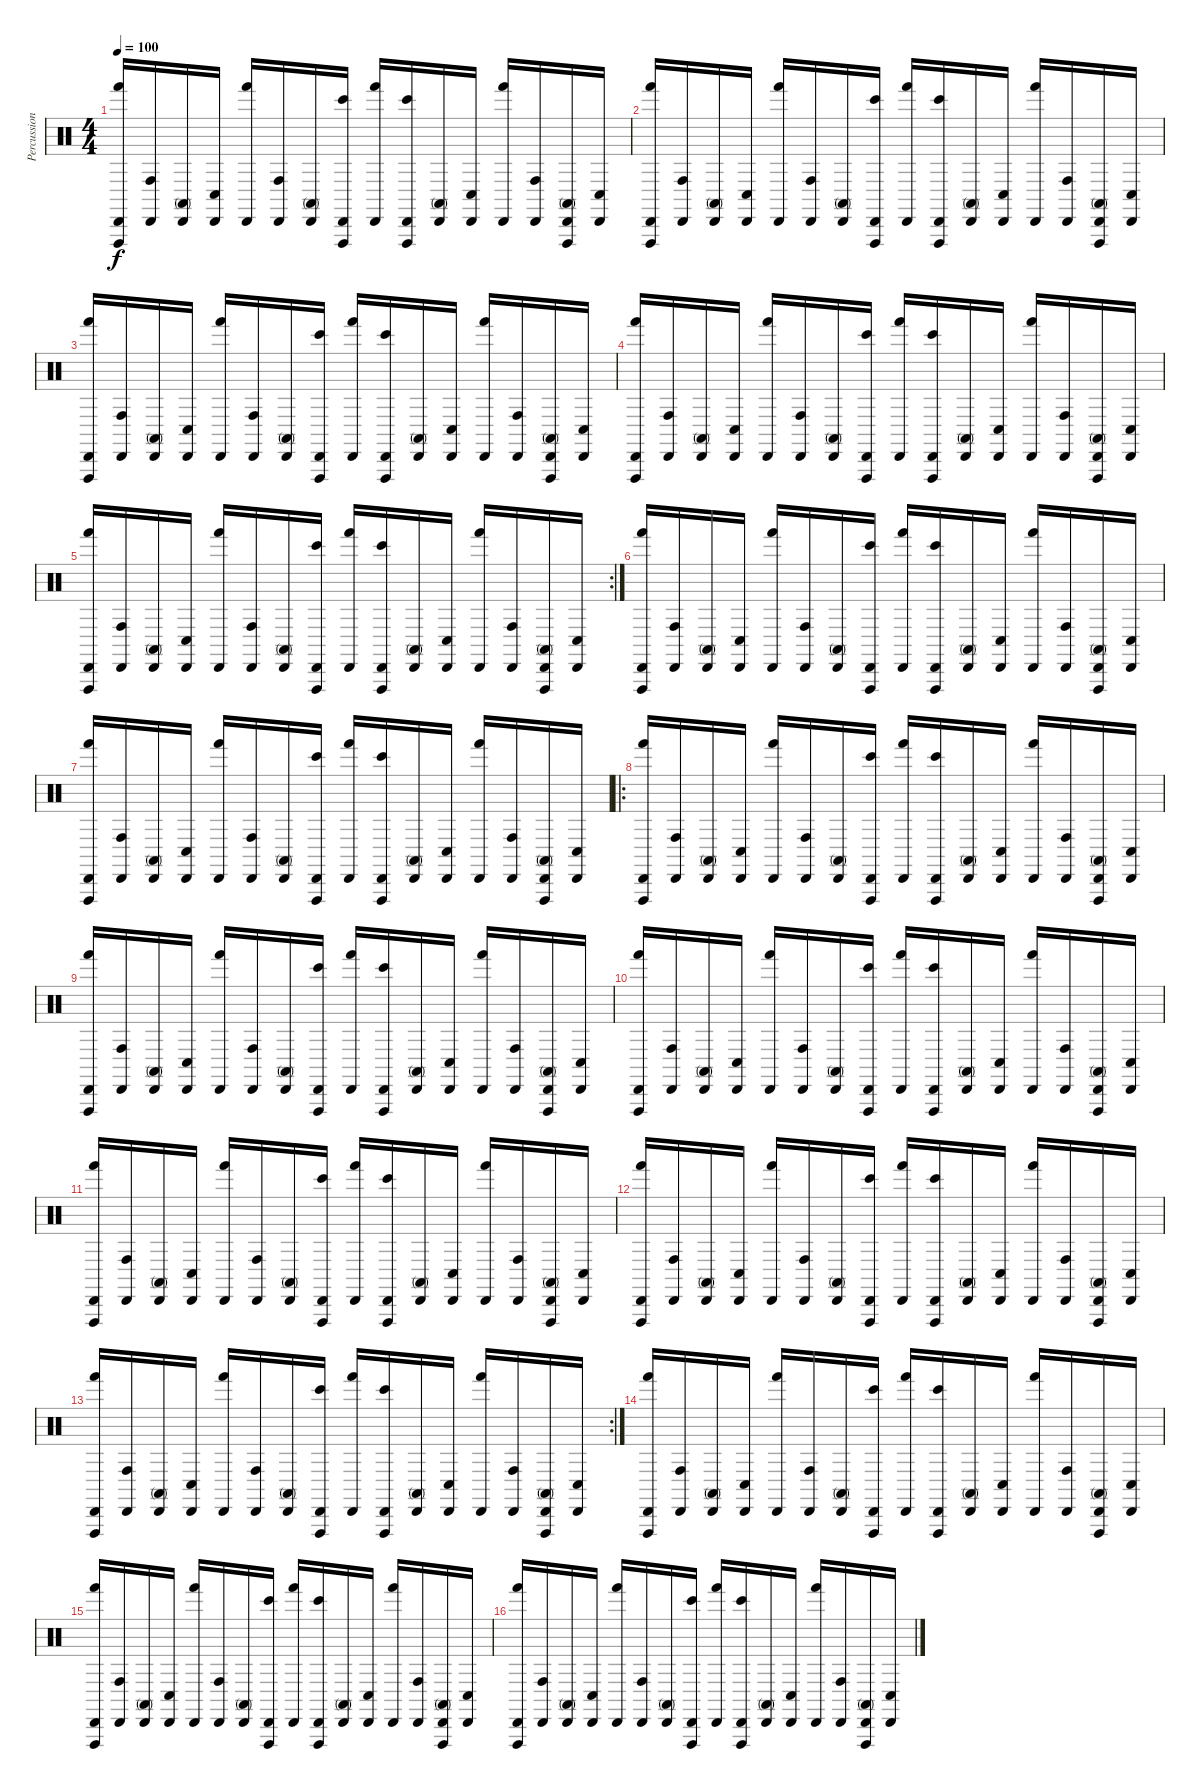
\track ("Percussion" "Percussion") {instrument percussion}
\staff {score}
\articulation defaults
\ts (4 4)
\tempo 100
\clef neutral
\ks c
("Cabasa (hit)" "Vibraslap (hit)" "Hand (hit)").16{dy f} ("Cabasa (hit)" "Conga high (hit)").16 ("Cabasa (hit)" "Conga high (mute)").16 ("Cabasa (hit)" "Conga low (hit)").16 ("Cabasa (hit)" "Hand (hit)").16 ("Cabasa (hit)" "Conga high (hit)").16 ("Cabasa (hit)" "Conga high (mute)").16 ("Cabasa (hit)" "Vibraslap (hit)" "Bongo High (hit)").16 ("Cabasa (hit)" "Hand (hit)").16 ("Cabasa (hit)" "Vibraslap (hit)" "Bongo High (hit)").16 ("Cabasa (hit)" "Conga high (mute)").16 ("Cabasa (hit)" "Conga low (hit)").16 ("Cabasa (hit)" "Hand (hit)").16 ("Cabasa (hit)" "Conga high (hit)").16 ("Cabasa (hit)" "Vibraslap (hit)" "Conga high (mute)").16 ("Cabasa (hit)" "Conga low (hit)").16 |
("Cabasa (hit)" "Vibraslap (hit)" "Hand (hit)").16 ("Cabasa (hit)" "Conga high (hit)").16 ("Cabasa (hit)" "Conga high (mute)").16 ("Cabasa (hit)" "Conga low (hit)").16 ("Cabasa (hit)" "Hand (hit)").16 ("Cabasa (hit)" "Conga high (hit)").16 ("Cabasa (hit)" "Conga high (mute)").16 ("Cabasa (hit)" "Vibraslap (hit)" "Bongo High (hit)").16 ("Cabasa (hit)" "Hand (hit)").16 ("Cabasa (hit)" "Vibraslap (hit)" "Bongo High (hit)").16 ("Cabasa (hit)" "Conga high (mute)").16 ("Cabasa (hit)" "Conga low (hit)").16 ("Cabasa (hit)" "Hand (hit)").16 ("Cabasa (hit)" "Conga high (hit)").16 ("Cabasa (hit)" "Vibraslap (hit)" "Conga high (mute)").16 ("Cabasa (hit)" "Conga low (hit)").16 |
("Cabasa (hit)" "Vibraslap (hit)" "Hand (hit)").16 ("Cabasa (hit)" "Conga high (hit)").16 ("Cabasa (hit)" "Conga high (mute)").16 ("Cabasa (hit)" "Conga low (hit)").16 ("Cabasa (hit)" "Hand (hit)").16 ("Cabasa (hit)" "Conga high (hit)").16 ("Cabasa (hit)" "Conga high (mute)").16 ("Cabasa (hit)" "Vibraslap (hit)" "Bongo High (hit)").16 ("Cabasa (hit)" "Hand (hit)").16 ("Cabasa (hit)" "Vibraslap (hit)" "Bongo High (hit)").16 ("Cabasa (hit)" "Conga high (mute)").16 ("Cabasa (hit)" "Conga low (hit)").16 ("Cabasa (hit)" "Hand (hit)").16 ("Cabasa (hit)" "Conga high (hit)").16 ("Cabasa (hit)" "Vibraslap (hit)" "Conga high (mute)").16 ("Cabasa (hit)" "Conga low (hit)").16 |
("Cabasa (hit)" "Vibraslap (hit)" "Hand (hit)").16 ("Cabasa (hit)" "Conga high (hit)").16 ("Cabasa (hit)" "Conga high (mute)").16 ("Cabasa (hit)" "Conga low (hit)").16 ("Cabasa (hit)" "Hand (hit)").16 ("Cabasa (hit)" "Conga high (hit)").16 ("Cabasa (hit)" "Conga high (mute)").16 ("Cabasa (hit)" "Vibraslap (hit)" "Bongo High (hit)").16 ("Cabasa (hit)" "Hand (hit)").16 ("Cabasa (hit)" "Vibraslap (hit)" "Bongo High (hit)").16 ("Cabasa (hit)" "Conga high (mute)").16 ("Cabasa (hit)" "Conga low (hit)").16 ("Cabasa (hit)" "Hand (hit)").16 ("Cabasa (hit)" "Conga high (hit)").16 ("Cabasa (hit)" "Vibraslap (hit)" "Conga high (mute)").16 ("Cabasa (hit)" "Conga low (hit)").16 |
\rc 2
("Cabasa (hit)" "Vibraslap (hit)" "Hand (hit)").16 ("Cabasa (hit)" "Conga high (hit)").16 ("Cabasa (hit)" "Conga high (mute)").16 ("Cabasa (hit)" "Conga low (hit)").16 ("Cabasa (hit)" "Hand (hit)").16 ("Cabasa (hit)" "Conga high (hit)").16 ("Cabasa (hit)" "Conga high (mute)").16 ("Cabasa (hit)" "Vibraslap (hit)" "Bongo High (hit)").16 ("Cabasa (hit)" "Hand (hit)").16 ("Cabasa (hit)" "Vibraslap (hit)" "Bongo High (hit)").16 ("Cabasa (hit)" "Conga high (mute)").16 ("Cabasa (hit)" "Conga low (hit)").16 ("Cabasa (hit)" "Hand (hit)").16 ("Cabasa (hit)" "Conga high (hit)").16 ("Cabasa (hit)" "Vibraslap (hit)" "Conga high (mute)").16 ("Cabasa (hit)" "Conga low (hit)").16 |
("Cabasa (hit)" "Vibraslap (hit)" "Hand (hit)").16 ("Cabasa (hit)" "Conga high (hit)").16 ("Cabasa (hit)" "Conga high (mute)").16 ("Cabasa (hit)" "Conga low (hit)").16 ("Cabasa (hit)" "Hand (hit)").16 ("Cabasa (hit)" "Conga high (hit)").16 ("Cabasa (hit)" "Conga high (mute)").16 ("Cabasa (hit)" "Vibraslap (hit)" "Bongo High (hit)").16 ("Cabasa (hit)" "Hand (hit)").16 ("Cabasa (hit)" "Vibraslap (hit)" "Bongo High (hit)").16 ("Cabasa (hit)" "Conga high (mute)").16 ("Cabasa (hit)" "Conga low (hit)").16 ("Cabasa (hit)" "Hand (hit)").16 ("Cabasa (hit)" "Conga high (hit)").16 ("Cabasa (hit)" "Vibraslap (hit)" "Conga high (mute)").16 ("Cabasa (hit)" "Conga low (hit)").16 |
("Cabasa (hit)" "Vibraslap (hit)" "Hand (hit)").16 ("Cabasa (hit)" "Conga high (hit)").16 ("Cabasa (hit)" "Conga high (mute)").16 ("Cabasa (hit)" "Conga low (hit)").16 ("Cabasa (hit)" "Hand (hit)").16 ("Cabasa (hit)" "Conga high (hit)").16 ("Cabasa (hit)" "Conga high (mute)").16 ("Cabasa (hit)" "Vibraslap (hit)" "Bongo High (hit)").16 ("Cabasa (hit)" "Hand (hit)").16 ("Cabasa (hit)" "Vibraslap (hit)" "Bongo High (hit)").16 ("Cabasa (hit)" "Conga high (mute)").16 ("Cabasa (hit)" "Conga low (hit)").16 ("Cabasa (hit)" "Hand (hit)").16 ("Cabasa (hit)" "Conga high (hit)").16 ("Cabasa (hit)" "Vibraslap (hit)" "Conga high (mute)").16 ("Cabasa (hit)" "Conga low (hit)").16 |
\ro
("Cabasa (hit)" "Vibraslap (hit)" "Hand (hit)").16 ("Cabasa (hit)" "Conga high (hit)").16 ("Cabasa (hit)" "Conga high (mute)").16 ("Cabasa (hit)" "Conga low (hit)").16 ("Cabasa (hit)" "Hand (hit)").16 ("Cabasa (hit)" "Conga high (hit)").16 ("Cabasa (hit)" "Conga high (mute)").16 ("Cabasa (hit)" "Vibraslap (hit)" "Bongo High (hit)").16 ("Cabasa (hit)" "Hand (hit)").16 ("Cabasa (hit)" "Vibraslap (hit)" "Bongo High (hit)").16 ("Cabasa (hit)" "Conga high (mute)").16 ("Cabasa (hit)" "Conga low (hit)").16 ("Cabasa (hit)" "Hand (hit)").16 ("Cabasa (hit)" "Conga high (hit)").16 ("Cabasa (hit)" "Vibraslap (hit)" "Conga high (mute)").16 ("Cabasa (hit)" "Conga low (hit)").16 |
("Cabasa (hit)" "Vibraslap (hit)" "Hand (hit)").16 ("Cabasa (hit)" "Conga high (hit)").16 ("Cabasa (hit)" "Conga high (mute)").16 ("Cabasa (hit)" "Conga low (hit)").16 ("Cabasa (hit)" "Hand (hit)").16 ("Cabasa (hit)" "Conga high (hit)").16 ("Cabasa (hit)" "Conga high (mute)").16 ("Cabasa (hit)" "Vibraslap (hit)" "Bongo High (hit)").16 ("Cabasa (hit)" "Hand (hit)").16 ("Cabasa (hit)" "Vibraslap (hit)" "Bongo High (hit)").16 ("Cabasa (hit)" "Conga high (mute)").16 ("Cabasa (hit)" "Conga low (hit)").16 ("Cabasa (hit)" "Hand (hit)").16 ("Cabasa (hit)" "Conga high (hit)").16 ("Cabasa (hit)" "Vibraslap (hit)" "Conga high (mute)").16 ("Cabasa (hit)" "Conga low (hit)").16 |
("Cabasa (hit)" "Vibraslap (hit)" "Hand (hit)").16 ("Cabasa (hit)" "Conga high (hit)").16 ("Cabasa (hit)" "Conga high (mute)").16 ("Cabasa (hit)" "Conga low (hit)").16 ("Cabasa (hit)" "Hand (hit)").16 ("Cabasa (hit)" "Conga high (hit)").16 ("Cabasa (hit)" "Conga high (mute)").16 ("Cabasa (hit)" "Vibraslap (hit)" "Bongo High (hit)").16 ("Cabasa (hit)" "Hand (hit)").16 ("Cabasa (hit)" "Vibraslap (hit)" "Bongo High (hit)").16 ("Cabasa (hit)" "Conga high (mute)").16 ("Cabasa (hit)" "Conga low (hit)").16 ("Cabasa (hit)" "Hand (hit)").16 ("Cabasa (hit)" "Conga high (hit)").16 ("Cabasa (hit)" "Vibraslap (hit)" "Conga high (mute)").16 ("Cabasa (hit)" "Conga low (hit)").16 |
("Cabasa (hit)" "Vibraslap (hit)" "Hand (hit)").16 ("Cabasa (hit)" "Conga high (hit)").16 ("Cabasa (hit)" "Conga high (mute)").16 ("Cabasa (hit)" "Conga low (hit)").16 ("Cabasa (hit)" "Hand (hit)").16 ("Cabasa (hit)" "Conga high (hit)").16 ("Cabasa (hit)" "Conga high (mute)").16 ("Cabasa (hit)" "Vibraslap (hit)" "Bongo High (hit)").16 ("Cabasa (hit)" "Hand (hit)").16 ("Cabasa (hit)" "Vibraslap (hit)" "Bongo High (hit)").16 ("Cabasa (hit)" "Conga high (mute)").16 ("Cabasa (hit)" "Conga low (hit)").16 ("Cabasa (hit)" "Hand (hit)").16 ("Cabasa (hit)" "Conga high (hit)").16 ("Cabasa (hit)" "Vibraslap (hit)" "Conga high (mute)").16 ("Cabasa (hit)" "Conga low (hit)").16 |
("Cabasa (hit)" "Vibraslap (hit)" "Hand (hit)").16 ("Cabasa (hit)" "Conga high (hit)").16 ("Cabasa (hit)" "Conga high (mute)").16 ("Cabasa (hit)" "Conga low (hit)").16 ("Cabasa (hit)" "Hand (hit)").16 ("Cabasa (hit)" "Conga high (hit)").16 ("Cabasa (hit)" "Conga high (mute)").16 ("Cabasa (hit)" "Vibraslap (hit)" "Bongo High (hit)").16 ("Cabasa (hit)" "Hand (hit)").16 ("Cabasa (hit)" "Vibraslap (hit)" "Bongo High (hit)").16 ("Cabasa (hit)" "Conga high (mute)").16 ("Cabasa (hit)" "Conga low (hit)").16 ("Cabasa (hit)" "Hand (hit)").16 ("Cabasa (hit)" "Conga high (hit)").16 ("Cabasa (hit)" "Vibraslap (hit)" "Conga high (mute)").16 ("Cabasa (hit)" "Conga low (hit)").16 |
\rc 2
("Cabasa (hit)" "Vibraslap (hit)" "Hand (hit)").16 ("Cabasa (hit)" "Conga high (hit)").16 ("Cabasa (hit)" "Conga high (mute)").16 ("Cabasa (hit)" "Conga low (hit)").16 ("Cabasa (hit)" "Hand (hit)").16 ("Cabasa (hit)" "Conga high (hit)").16 ("Cabasa (hit)" "Conga high (mute)").16 ("Cabasa (hit)" "Vibraslap (hit)" "Bongo High (hit)").16 ("Cabasa (hit)" "Hand (hit)").16 ("Cabasa (hit)" "Vibraslap (hit)" "Bongo High (hit)").16 ("Cabasa (hit)" "Conga high (mute)").16 ("Cabasa (hit)" "Conga low (hit)").16 ("Cabasa (hit)" "Hand (hit)").16 ("Cabasa (hit)" "Conga high (hit)").16 ("Cabasa (hit)" "Vibraslap (hit)" "Conga high (mute)").16 ("Cabasa (hit)" "Conga low (hit)").16 |
("Cabasa (hit)" "Vibraslap (hit)" "Hand (hit)").16 ("Cabasa (hit)" "Conga high (hit)").16 ("Cabasa (hit)" "Conga high (mute)").16 ("Cabasa (hit)" "Conga low (hit)").16 ("Cabasa (hit)" "Hand (hit)").16 ("Cabasa (hit)" "Conga high (hit)").16 ("Cabasa (hit)" "Conga high (mute)").16 ("Cabasa (hit)" "Vibraslap (hit)" "Bongo High (hit)").16 ("Cabasa (hit)" "Hand (hit)").16 ("Cabasa (hit)" "Vibraslap (hit)" "Bongo High (hit)").16 ("Cabasa (hit)" "Conga high (mute)").16 ("Cabasa (hit)" "Conga low (hit)").16 ("Cabasa (hit)" "Hand (hit)").16 ("Cabasa (hit)" "Conga high (hit)").16 ("Cabasa (hit)" "Vibraslap (hit)" "Conga high (mute)").16 ("Cabasa (hit)" "Conga low (hit)").16 |
("Cabasa (hit)" "Vibraslap (hit)" "Hand (hit)").16 ("Cabasa (hit)" "Conga high (hit)").16 ("Cabasa (hit)" "Conga high (mute)").16 ("Cabasa (hit)" "Conga low (hit)").16 ("Cabasa (hit)" "Hand (hit)").16 ("Cabasa (hit)" "Conga high (hit)").16 ("Cabasa (hit)" "Conga high (mute)").16 ("Cabasa (hit)" "Vibraslap (hit)" "Bongo High (hit)").16 ("Cabasa (hit)" "Hand (hit)").16 ("Cabasa (hit)" "Vibraslap (hit)" "Bongo High (hit)").16 ("Cabasa (hit)" "Conga high (mute)").16 ("Cabasa (hit)" "Conga low (hit)").16 ("Cabasa (hit)" "Hand (hit)").16 ("Cabasa (hit)" "Conga high (hit)").16 ("Cabasa (hit)" "Vibraslap (hit)" "Conga high (mute)").16 ("Cabasa (hit)" "Conga low (hit)").16 |
("Cabasa (hit)" "Vibraslap (hit)" "Hand (hit)").16 ("Cabasa (hit)" "Conga high (hit)").16 ("Cabasa (hit)" "Conga high (mute)").16 ("Cabasa (hit)" "Conga low (hit)").16 ("Cabasa (hit)" "Hand (hit)").16 ("Cabasa (hit)" "Conga high (hit)").16 ("Cabasa (hit)" "Conga high (mute)").16 ("Cabasa (hit)" "Vibraslap (hit)" "Bongo High (hit)").16 ("Cabasa (hit)" "Hand (hit)").16 ("Cabasa (hit)" "Vibraslap (hit)" "Bongo High (hit)").16 ("Cabasa (hit)" "Conga high (mute)").16 ("Cabasa (hit)" "Conga low (hit)").16 ("Cabasa (hit)" "Hand (hit)").16 ("Cabasa (hit)" "Conga high (hit)").16 ("Cabasa (hit)" "Vibraslap (hit)" "Conga high (mute)").16 ("Cabasa (hit)" "Conga low (hit)").16
